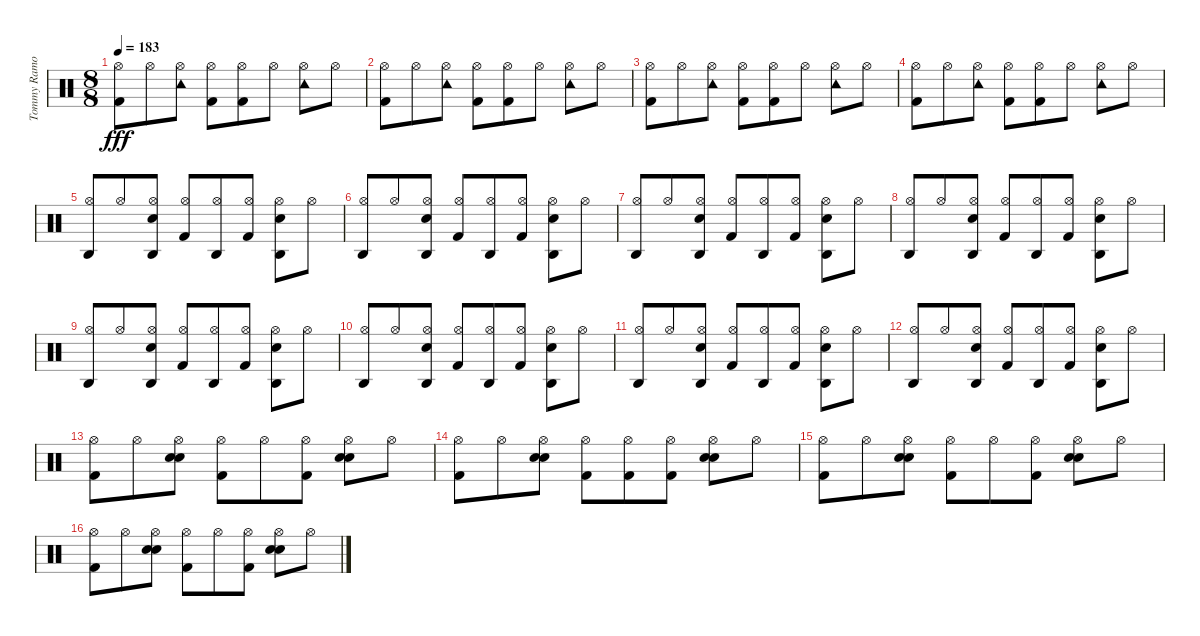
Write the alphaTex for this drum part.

\track ("Tommy Ramone - Drums" "Tommy Ramo") {instrument percussion}
\staff {score}
\articulation defaults
\ts (8 8)
\tempo 183
\clef neutral
\ks c
("Kick (hit) 2" "Hi-Hat (open)").8{dy fff} "Hi-Hat (open)".8 ("Tambourine (hit)" "Hi-Hat (open)").8 ("Kick (hit) 2" "Hi-Hat (open)").8 ("Kick (hit) 2" "Hi-Hat (open)").8 "Hi-Hat (open)".8 ("Tambourine (hit)" "Hi-Hat (open)").8 "Hi-Hat (open)".8 |
("Kick (hit) 2" "Hi-Hat (open)").8 "Hi-Hat (open)".8 ("Tambourine (hit)" "Hi-Hat (open)").8 ("Kick (hit) 2" "Hi-Hat (open)").8 ("Kick (hit) 2" "Hi-Hat (open)").8 "Hi-Hat (open)".8 ("Tambourine (hit)" "Hi-Hat (open)").8 "Hi-Hat (open)".8 |
("Kick (hit) 2" "Hi-Hat (open)").8 "Hi-Hat (open)".8 ("Tambourine (hit)" "Hi-Hat (open)").8 ("Kick (hit) 2" "Hi-Hat (open)").8 ("Kick (hit) 2" "Hi-Hat (open)").8 "Hi-Hat (open)".8 ("Tambourine (hit)" "Hi-Hat (open)").8 "Hi-Hat (open)".8 |
("Kick (hit) 2" "Hi-Hat (open)").8 "Hi-Hat (open)".8 ("Tambourine (hit)" "Hi-Hat (open)").8 ("Kick (hit) 2" "Hi-Hat (open)").8 ("Kick (hit) 2" "Hi-Hat (open)").8 "Hi-Hat (open)".8 ("Tambourine (hit)" "Hi-Hat (open)").8 "Hi-Hat (open)".8 |
("Agogo high (hit)" "Hi-Hat (open)").8 "Hi-Hat (open)".8 ("Agogo high (hit)" "Snare (hit) 2" "Hi-Hat (open)").8 ("Kick (hit) 2" "Hi-Hat (open)").8 ("Agogo high (hit)" "Hi-Hat (open)").8 ("Kick (hit) 2" "Hi-Hat (open)").8 ("Agogo high (hit)" "Snare (hit) 2" "Hi-Hat (open)").8 "Hi-Hat (open)".8 |
("Agogo high (hit)" "Hi-Hat (open)").8 "Hi-Hat (open)".8 ("Agogo high (hit)" "Snare (hit) 2" "Hi-Hat (open)").8 ("Kick (hit) 2" "Hi-Hat (open)").8 ("Agogo high (hit)" "Hi-Hat (open)").8 ("Kick (hit) 2" "Hi-Hat (open)").8 ("Agogo high (hit)" "Snare (hit) 2" "Hi-Hat (open)").8 "Hi-Hat (open)".8 |
("Agogo high (hit)" "Hi-Hat (open)").8 "Hi-Hat (open)".8 ("Agogo high (hit)" "Snare (hit) 2" "Hi-Hat (open)").8 ("Kick (hit) 2" "Hi-Hat (open)").8 ("Agogo high (hit)" "Hi-Hat (open)").8 ("Kick (hit) 2" "Hi-Hat (open)").8 ("Agogo high (hit)" "Snare (hit) 2" "Hi-Hat (open)").8 "Hi-Hat (open)".8 |
("Agogo high (hit)" "Hi-Hat (open)").8 "Hi-Hat (open)".8 ("Agogo high (hit)" "Snare (hit) 2" "Hi-Hat (open)").8 ("Kick (hit) 2" "Hi-Hat (open)").8 ("Agogo high (hit)" "Hi-Hat (open)").8 ("Kick (hit) 2" "Hi-Hat (open)").8 ("Agogo high (hit)" "Snare (hit) 2" "Hi-Hat (open)").8 "Hi-Hat (open)".8 |
("Agogo high (hit)" "Hi-Hat (open)").8 "Hi-Hat (open)".8 ("Agogo high (hit)" "Snare (hit) 2" "Hi-Hat (open)").8 ("Kick (hit) 2" "Hi-Hat (open)").8 ("Agogo high (hit)" "Hi-Hat (open)").8 ("Kick (hit) 2" "Hi-Hat (open)").8 ("Agogo high (hit)" "Snare (hit) 2" "Hi-Hat (open)").8 "Hi-Hat (open)".8 |
("Agogo high (hit)" "Hi-Hat (open)").8 "Hi-Hat (open)".8 ("Agogo high (hit)" "Snare (hit) 2" "Hi-Hat (open)").8 ("Kick (hit) 2" "Hi-Hat (open)").8 ("Agogo high (hit)" "Hi-Hat (open)").8 ("Kick (hit) 2" "Hi-Hat (open)").8 ("Agogo high (hit)" "Snare (hit) 2" "Hi-Hat (open)").8 "Hi-Hat (open)".8 |
("Agogo high (hit)" "Hi-Hat (open)").8 "Hi-Hat (open)".8 ("Agogo high (hit)" "Snare (hit) 2" "Hi-Hat (open)").8 ("Kick (hit) 2" "Hi-Hat (open)").8 ("Agogo high (hit)" "Hi-Hat (open)").8 ("Kick (hit) 2" "Hi-Hat (open)").8 ("Agogo high (hit)" "Snare (hit) 2" "Hi-Hat (open)").8 "Hi-Hat (open)".8 |
("Agogo high (hit)" "Hi-Hat (open)").8 "Hi-Hat (open)".8 ("Agogo high (hit)" "Snare (hit) 2" "Hi-Hat (open)").8 ("Kick (hit) 2" "Hi-Hat (open)").8 ("Agogo high (hit)" "Hi-Hat (open)").8 ("Kick (hit) 2" "Hi-Hat (open)").8 ("Agogo high (hit)" "Snare (hit) 2" "Hi-Hat (open)").8 "Hi-Hat (open)".8 |
("Kick (hit) 2" "Hi-Hat (open)").8 "Hi-Hat (open)".8 ("Hand Clap (hit)" "Snare (hit) 2" "Hi-Hat (open)").8 ("Kick (hit) 2" "Hi-Hat (open)").8 "Hi-Hat (open)".8 ("Kick (hit) 2" "Hi-Hat (open)").8 ("Hand Clap (hit)" "Snare (hit) 2" "Hi-Hat (open)").8 "Hi-Hat (open)".8 |
("Kick (hit) 2" "Hi-Hat (open)").8 "Hi-Hat (open)".8 ("Hand Clap (hit)" "Snare (hit) 2" "Hi-Hat (open)").8 ("Kick (hit) 2" "Hi-Hat (open)").8 ("Kick (hit) 2" "Hi-Hat (open)").8 ("Kick (hit) 2" "Hi-Hat (open)").8 ("Hand Clap (hit)" "Snare (hit) 2" "Hi-Hat (open)").8 "Hi-Hat (open)".8 |
("Kick (hit) 2" "Hi-Hat (open)").8 "Hi-Hat (open)".8 ("Hand Clap (hit)" "Snare (hit) 2" "Hi-Hat (open)").8 ("Kick (hit) 2" "Hi-Hat (open)").8 "Hi-Hat (open)".8 ("Kick (hit) 2" "Hi-Hat (open)").8 ("Hand Clap (hit)" "Snare (hit) 2" "Hi-Hat (open)").8 "Hi-Hat (open)".8 |
("Kick (hit) 2" "Hi-Hat (open)").8 "Hi-Hat (open)".8 ("Hand Clap (hit)" "Snare (hit) 2" "Hi-Hat (open)").8 ("Kick (hit) 2" "Hi-Hat (open)").8 "Hi-Hat (open)".8 ("Kick (hit) 2" "Hi-Hat (open)").8 ("Hand Clap (hit)" "Snare (hit) 2" "Hi-Hat (open)").8 "Hi-Hat (open)".8
